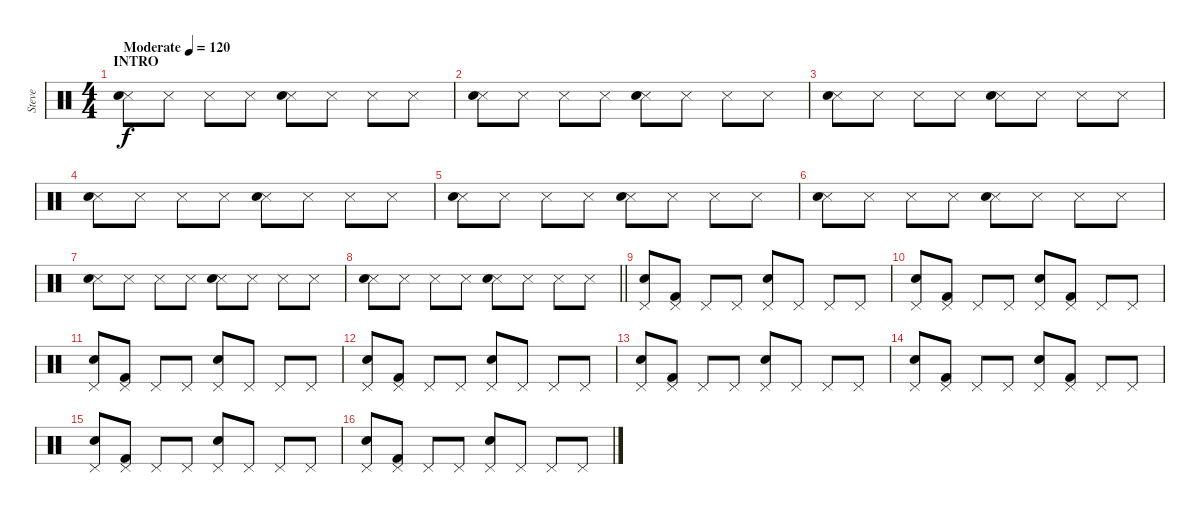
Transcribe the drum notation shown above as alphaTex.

\track ("Steve" "Steve") {instrument percussion}
\staff {score}
\articulation defaults
\ts (4 4)
\section ("" "INTRO")
\tempo (120 "Moderate")
\clef neutral
\ks c
("Snare (side stick) 3" "Electric Snare (hit)").8{dy f} "Snare (side stick) 3".8 "Snare (side stick) 3".8 "Snare (side stick) 3".8 ("Snare (side stick) 3" "Electric Snare (hit)").8 "Snare (side stick) 3".8 "Snare (side stick) 3".8 "Snare (side stick) 3".8 |
("Snare (side stick) 3" "Electric Snare (hit)").8 "Snare (side stick) 3".8 "Snare (side stick) 3".8 "Snare (side stick) 3".8 ("Snare (side stick) 3" "Electric Snare (hit)").8 "Snare (side stick) 3".8 "Snare (side stick) 3".8 "Snare (side stick) 3".8 |
("Snare (side stick) 3" "Electric Snare (hit)").8 "Snare (side stick) 3".8 "Snare (side stick) 3".8 "Snare (side stick) 3".8 ("Snare (side stick) 3" "Electric Snare (hit)").8 "Snare (side stick) 3".8 "Snare (side stick) 3".8 "Snare (side stick) 3".8 |
("Snare (side stick) 3" "Electric Snare (hit)").8 "Snare (side stick) 3".8 "Snare (side stick) 3".8 "Snare (side stick) 3".8 ("Snare (side stick) 3" "Electric Snare (hit)").8 "Snare (side stick) 3".8 "Snare (side stick) 3".8 "Snare (side stick) 3".8 |
("Snare (side stick) 3" "Electric Snare (hit)").8 "Snare (side stick) 3".8 "Snare (side stick) 3".8 "Snare (side stick) 3".8 ("Snare (side stick) 3" "Electric Snare (hit)").8 "Snare (side stick) 3".8 "Snare (side stick) 3".8 "Snare (side stick) 3".8 |
("Snare (side stick) 3" "Electric Snare (hit)").8 "Snare (side stick) 3".8 "Snare (side stick) 3".8 "Snare (side stick) 3".8 ("Snare (side stick) 3" "Electric Snare (hit)").8 "Snare (side stick) 3".8 "Snare (side stick) 3".8 "Snare (side stick) 3".8 |
("Snare (side stick) 3" "Electric Snare (hit)").8 "Snare (side stick) 3".8 "Snare (side stick) 3".8 "Snare (side stick) 3".8 ("Snare (side stick) 3" "Electric Snare (hit)").8 "Snare (side stick) 3".8 "Snare (side stick) 3".8 "Snare (side stick) 3".8 |
\barLineRight lightlight
("Snare (side stick) 3" "Electric Snare (hit)").8 "Snare (side stick) 3".8 "Snare (side stick) 3".8 "Snare (side stick) 3".8 ("Snare (side stick) 3" "Electric Snare (hit)").8 "Snare (side stick) 3".8 "Snare (side stick) 3".8 "Snare (side stick) 3".8 |
\section ("" "")
("Pedal Hi-Hat (hit)" "Electric Snare (hit)").8 ("Pedal Hi-Hat (hit)" "Kick (hit) 2").8 "Pedal Hi-Hat (hit)".8 "Pedal Hi-Hat (hit)".8 ("Pedal Hi-Hat (hit)" "Electric Snare (hit)").8 "Pedal Hi-Hat (hit)".8 "Pedal Hi-Hat (hit)".8 "Pedal Hi-Hat (hit)".8 |
("Pedal Hi-Hat (hit)" "Electric Snare (hit)").8 ("Pedal Hi-Hat (hit)" "Kick (hit) 2").8 "Pedal Hi-Hat (hit)".8 "Pedal Hi-Hat (hit)".8 ("Pedal Hi-Hat (hit)" "Electric Snare (hit)").8 ("Pedal Hi-Hat (hit)" "Kick (hit) 2").8 "Pedal Hi-Hat (hit)".8 "Pedal Hi-Hat (hit)".8 |
("Pedal Hi-Hat (hit)" "Electric Snare (hit)").8 ("Pedal Hi-Hat (hit)" "Kick (hit) 2").8 "Pedal Hi-Hat (hit)".8 "Pedal Hi-Hat (hit)".8 ("Pedal Hi-Hat (hit)" "Electric Snare (hit)").8 "Pedal Hi-Hat (hit)".8 "Pedal Hi-Hat (hit)".8 "Pedal Hi-Hat (hit)".8 |
("Pedal Hi-Hat (hit)" "Electric Snare (hit)").8 ("Pedal Hi-Hat (hit)" "Kick (hit) 2").8 "Pedal Hi-Hat (hit)".8 "Pedal Hi-Hat (hit)".8 ("Pedal Hi-Hat (hit)" "Electric Snare (hit)").8 "Pedal Hi-Hat (hit)".8 "Pedal Hi-Hat (hit)".8 "Pedal Hi-Hat (hit)".8 |
("Pedal Hi-Hat (hit)" "Electric Snare (hit)").8 ("Pedal Hi-Hat (hit)" "Kick (hit) 2").8 "Pedal Hi-Hat (hit)".8 "Pedal Hi-Hat (hit)".8 ("Pedal Hi-Hat (hit)" "Electric Snare (hit)").8 "Pedal Hi-Hat (hit)".8 "Pedal Hi-Hat (hit)".8 "Pedal Hi-Hat (hit)".8 |
("Pedal Hi-Hat (hit)" "Electric Snare (hit)").8 ("Pedal Hi-Hat (hit)" "Kick (hit) 2").8 "Pedal Hi-Hat (hit)".8 "Pedal Hi-Hat (hit)".8 ("Pedal Hi-Hat (hit)" "Electric Snare (hit)").8 ("Pedal Hi-Hat (hit)" "Kick (hit) 2").8 "Pedal Hi-Hat (hit)".8 "Pedal Hi-Hat (hit)".8 |
("Pedal Hi-Hat (hit)" "Electric Snare (hit)").8 ("Pedal Hi-Hat (hit)" "Kick (hit) 2").8 "Pedal Hi-Hat (hit)".8 "Pedal Hi-Hat (hit)".8 ("Pedal Hi-Hat (hit)" "Electric Snare (hit)").8 "Pedal Hi-Hat (hit)".8 "Pedal Hi-Hat (hit)".8 "Pedal Hi-Hat (hit)".8 |
("Pedal Hi-Hat (hit)" "Electric Snare (hit)").8 ("Pedal Hi-Hat (hit)" "Kick (hit) 2").8 "Pedal Hi-Hat (hit)".8 "Pedal Hi-Hat (hit)".8 ("Pedal Hi-Hat (hit)" "Electric Snare (hit)").8 "Pedal Hi-Hat (hit)".8 "Pedal Hi-Hat (hit)".8 "Pedal Hi-Hat (hit)".8
